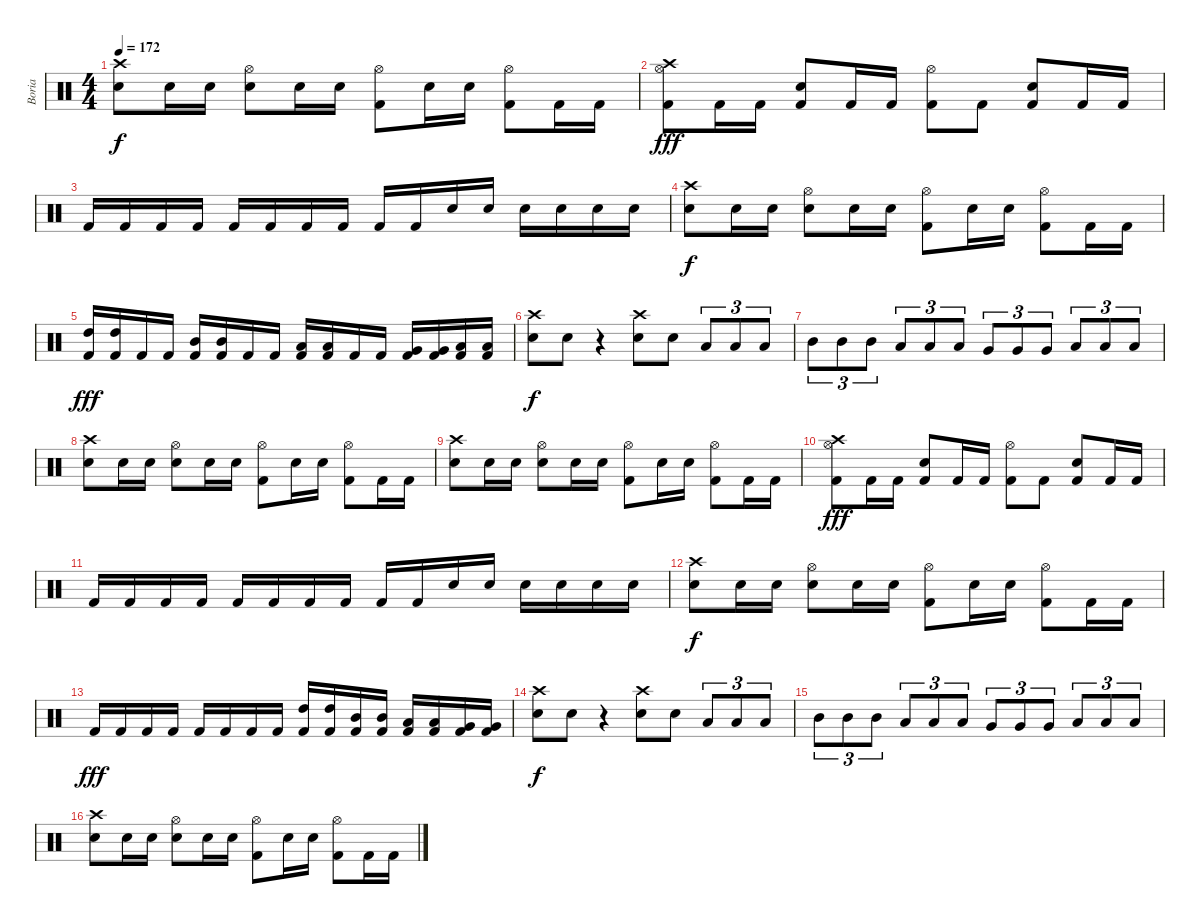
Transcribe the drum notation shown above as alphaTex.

\track ("Boria" "Boria") {instrument percussion}
\staff {score}
\articulation defaults
\ts (4 4)
\tempo 172
\clef neutral
\ks c
("Crash high (hit)" "Snare (hit) 2").8{dy f} "Snare (hit) 2".16 "Snare (hit) 2".16 ("Hi-Hat (open)" "Snare (hit) 2").8 "Snare (hit) 2".16 "Snare (hit) 2".16 ("Hi-Hat (open)" "Kick (hit) 2").8 "Snare (hit) 2".16 "Snare (hit) 2".16 ("Hi-Hat (open)" "Kick (hit) 2").8 "Kick (hit) 2".16 "Kick (hit) 2".16 |
("Crash high (hit)" "Hi-Hat (open)" "Kick (hit) 2").8{dy fff} "Kick (hit) 2".16 "Kick (hit) 2".16 ("Snare (hit) 2" "Kick (hit) 2").8 "Kick (hit) 2".16 "Kick (hit) 2".16 ("Hi-Hat (open)" "Kick (hit) 2").8 "Kick (hit) 2".8 ("Snare (hit) 2" "Kick (hit) 2").8 "Kick (hit) 2".16 "Kick (hit) 2".16 |
"Kick (hit) 2".16 "Kick (hit) 2".16 "Kick (hit) 2".16 "Kick (hit) 2".16 "Kick (hit) 2".16 "Kick (hit) 2".16 "Kick (hit) 2".16 "Kick (hit) 2".16 "Kick (hit) 2".16 "Kick (hit) 2".16 "Snare (hit) 2".16 "Snare (hit) 2".16 "Snare (hit) 2".16 "Snare (hit) 2".16 "Snare (hit) 2".16 "Snare (hit) 2".16 |
("Crash high (hit)" "Snare (hit) 2").8{dy f} "Snare (hit) 2".16 "Snare (hit) 2".16 ("Hi-Hat (open)" "Snare (hit) 2").8 "Snare (hit) 2".16 "Snare (hit) 2".16 ("Hi-Hat (open)" "Kick (hit) 2").8 "Snare (hit) 2".16 "Snare (hit) 2".16 ("Hi-Hat (open)" "Kick (hit) 2").8 "Kick (hit) 2".16 "Kick (hit) 2".16 |
("High Tom (hit)" "Kick (hit) 2").16{dy fff} ("High Tom (hit)" "Kick (hit) 2").16 "Kick (hit) 2".16 "Kick (hit) 2".16 ("Mid Tom (hit)" "Kick (hit) 2").16 ("Mid Tom (hit)" "Kick (hit) 2").16 "Kick (hit) 2".16 "Kick (hit) 2".16 ("Low Tom (hit)" "Kick (hit) 2").16 ("Low Tom (hit)" "Kick (hit) 2").16 "Kick (hit) 2".16 "Kick (hit) 2".16 ("Very Low Tom (hit)" "Kick (hit) 2").16 ("Very Low Tom (hit)" "Kick (hit) 2").16 ("Low Floor Tom (hit)" "Kick (hit) 2").16 ("Low Floor Tom (hit)" "Kick (hit) 2").16 |
("Crash high (hit)" "Snare (hit) 2").8{dy f} "Snare (hit) 2".8 r.4 ("Crash high (hit)" "Snare (hit) 2").8 "Snare (hit) 2".8 "Low Tom (hit)".8{tu (3 2)} "Low Tom (hit)".8{tu (3 2)} "Low Tom (hit)".8{tu (3 2)} |
"Mid Tom (hit)".8{tu (3 2)} "Mid Tom (hit)".8{tu (3 2)} "Mid Tom (hit)".8{tu (3 2)} "Low Tom (hit)".8{tu (3 2)} "Low Tom (hit)".8{tu (3 2)} "Low Tom (hit)".8{tu (3 2)} "Very Low Tom (hit)".8{tu (3 2)} "Very Low Tom (hit)".8{tu (3 2)} "Very Low Tom (hit)".8{tu (3 2)} "Low Floor Tom (hit)".8{tu (3 2)} "Low Floor Tom (hit)".8{tu (3 2)} "Low Floor Tom (hit)".8{tu (3 2)} |
("Crash high (hit)" "Snare (hit) 2").8 "Snare (hit) 2".16 "Snare (hit) 2".16 ("Hi-Hat (open)" "Snare (hit) 2").8 "Snare (hit) 2".16 "Snare (hit) 2".16 ("Hi-Hat (open)" "Kick (hit) 2").8 "Snare (hit) 2".16 "Snare (hit) 2".16 ("Hi-Hat (open)" "Kick (hit) 2").8 "Kick (hit) 2".16 "Kick (hit) 2".16 |
("Crash high (hit)" "Snare (hit) 2").8 "Snare (hit) 2".16 "Snare (hit) 2".16 ("Hi-Hat (open)" "Snare (hit) 2").8 "Snare (hit) 2".16 "Snare (hit) 2".16 ("Hi-Hat (open)" "Kick (hit) 2").8 "Snare (hit) 2".16 "Snare (hit) 2".16 ("Hi-Hat (open)" "Kick (hit) 2").8 "Kick (hit) 2".16 "Kick (hit) 2".16 |
("Crash high (hit)" "Hi-Hat (open)" "Kick (hit) 2").8{dy fff} "Kick (hit) 2".16 "Kick (hit) 2".16 ("Snare (hit) 2" "Kick (hit) 2").8 "Kick (hit) 2".16 "Kick (hit) 2".16 ("Hi-Hat (open)" "Kick (hit) 2").8 "Kick (hit) 2".8 ("Snare (hit) 2" "Kick (hit) 2").8 "Kick (hit) 2".16 "Kick (hit) 2".16 |
"Kick (hit) 2".16 "Kick (hit) 2".16 "Kick (hit) 2".16 "Kick (hit) 2".16 "Kick (hit) 2".16 "Kick (hit) 2".16 "Kick (hit) 2".16 "Kick (hit) 2".16 "Kick (hit) 2".16 "Kick (hit) 2".16 "Snare (hit) 2".16 "Snare (hit) 2".16 "Snare (hit) 2".16 "Snare (hit) 2".16 "Snare (hit) 2".16 "Snare (hit) 2".16 |
("Crash high (hit)" "Snare (hit) 2").8{dy f} "Snare (hit) 2".16 "Snare (hit) 2".16 ("Hi-Hat (open)" "Snare (hit) 2").8 "Snare (hit) 2".16 "Snare (hit) 2".16 ("Hi-Hat (open)" "Kick (hit) 2").8 "Snare (hit) 2".16 "Snare (hit) 2".16 ("Hi-Hat (open)" "Kick (hit) 2").8 "Kick (hit) 2".16 "Kick (hit) 2".16 |
"Kick (hit) 2".16{dy fff} "Kick (hit) 2".16 "Kick (hit) 2".16 "Kick (hit) 2".16 "Kick (hit) 2".16 "Kick (hit) 2".16 "Kick (hit) 2".16 "Kick (hit) 2".16 ("High Tom (hit)" "Kick (hit) 2").16 ("High Tom (hit)" "Kick (hit) 2").16 ("Mid Tom (hit)" "Kick (hit) 2").16 ("Mid Tom (hit)" "Kick (hit) 2").16 ("Low Tom (hit)" "Kick (hit) 2").16 ("Low Tom (hit)" "Kick (hit) 2").16 ("Very Low Tom (hit)" "Kick (hit) 2").16 ("Very Low Tom (hit)" "Kick (hit) 2").16 |
("Crash high (hit)" "Snare (hit) 2").8{dy f} "Snare (hit) 2".8 r.4 ("Crash high (hit)" "Snare (hit) 2").8 "Snare (hit) 2".8 "Low Tom (hit)".8{tu (3 2)} "Low Tom (hit)".8{tu (3 2)} "Low Tom (hit)".8{tu (3 2)} |
"Mid Tom (hit)".8{tu (3 2)} "Mid Tom (hit)".8{tu (3 2)} "Mid Tom (hit)".8{tu (3 2)} "Low Tom (hit)".8{tu (3 2)} "Low Tom (hit)".8{tu (3 2)} "Low Tom (hit)".8{tu (3 2)} "Very Low Tom (hit)".8{tu (3 2)} "Very Low Tom (hit)".8{tu (3 2)} "Very Low Tom (hit)".8{tu (3 2)} "Low Floor Tom (hit)".8{tu (3 2)} "Low Floor Tom (hit)".8{tu (3 2)} "Low Floor Tom (hit)".8{tu (3 2)} |
("Crash high (hit)" "Snare (hit) 2").8 "Snare (hit) 2".16 "Snare (hit) 2".16 ("Hi-Hat (open)" "Snare (hit) 2").8 "Snare (hit) 2".16 "Snare (hit) 2".16 ("Hi-Hat (open)" "Kick (hit) 2").8 "Snare (hit) 2".16 "Snare (hit) 2".16 ("Hi-Hat (open)" "Kick (hit) 2").8 "Kick (hit) 2".16 "Kick (hit) 2".16
